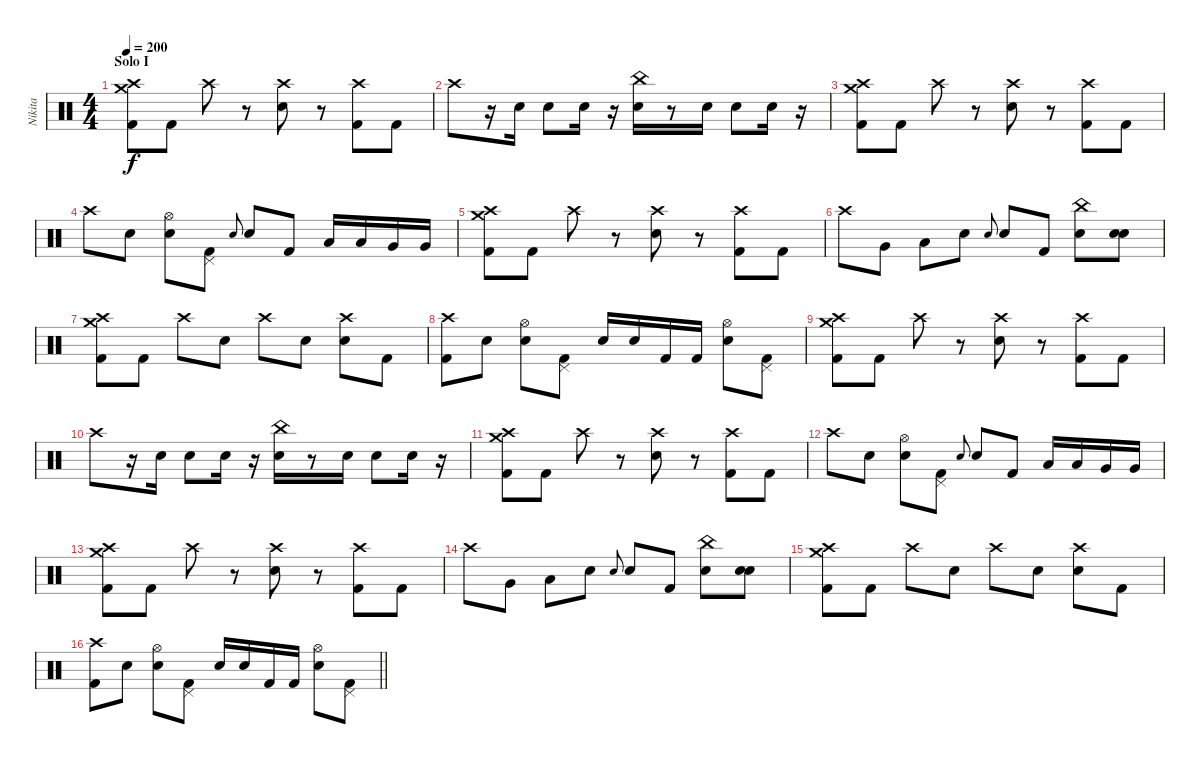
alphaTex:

\track ("Nikita" "Nikita") {instrument percussion}
\staff {score}
\articulation defaults
\ts (4 4)
\section ("" "Solo I")
\tempo 200
\clef neutral
\ks c
("Crash high (hit)" "Crash medium (hit)" "Kick (hit) 2").8{dy f} "Kick (hit) 2".8 "Crash high (hit)".8 r.8 ("Crash high (hit)" "Electric Snare (hit)").8 r.8 ("Crash high (hit)" "Kick (hit) 2").8 "Kick (hit) 2".8 |
"Crash high (hit)".8 r.16 "Electric Snare (hit)".16 "Metronome (bell)".8 "Electric Snare (hit)".16 r.16 ("China (hit)" "Electric Snare (hit)").16 r.8 "Electric Snare (hit)".16 "Metronome (bell)".8 "Electric Snare (hit)".16 r.16 |
("Crash high (hit)" "Crash medium (hit)" "Kick (hit) 2").8 "Kick (hit) 2".8 "Crash high (hit)".8 r.8 ("Crash high (hit)" "Electric Snare (hit)").8 r.8 ("Crash high (hit)" "Kick (hit) 2").8 "Kick (hit) 2".8 |
"Crash high (hit)".8 "Electric Snare (hit)".8 ("Hi-Hat (open)" "Electric Snare (hit)").8 ("Pedal Hi-Hat (hit)" "Kick (hit) 2").8 "Electric Snare (hit)"{x}.8{gr onbeat} "Electric Snare (hit)".8 "Kick (hit) 2".8 "Low Tom (hit)".16 "Low Tom (hit)".16 "Very Low Tom (hit)".16 "Very Low Tom (hit)".16 |
("Crash high (hit)" "Crash medium (hit)" "Kick (hit) 2").8 "Kick (hit) 2".8 "Crash high (hit)".8 r.8 ("Crash high (hit)" "Electric Snare (hit)").8 r.8 ("Crash high (hit)" "Kick (hit) 2").8 "Kick (hit) 2".8 |
"Crash high (hit)".8 "Very Low Tom (hit)".8 "Low Tom (hit)".8 "Electric Snare (hit)".8 "Electric Snare (hit)"{x}.8{gr onbeat} "Electric Snare (hit)".8 "Kick (hit) 2".8 ("China (hit)" "Electric Snare (hit)").8 ("Metronome (bell)" "Electric Snare (hit)").8 |
("Crash high (hit)" "Crash medium (hit)" "Kick (hit) 2").8 "Kick (hit) 2".8 "Crash high (hit)".8 "Electric Snare (hit)".8 "Crash high (hit)".8 "Electric Snare (hit)".8 ("Crash high (hit)" "Electric Snare (hit)").8 "Kick (hit) 2".8 |
("Crash high (hit)" "Kick (hit) 2").8 "Electric Snare (hit)".8 ("Hi-Hat (open)" "Electric Snare (hit)").8 ("Pedal Hi-Hat (hit)" "Kick (hit) 2").8 "Electric Snare (hit)".16 "Electric Snare (hit)".16 "Kick (hit) 2".16 "Kick (hit) 2".16 ("Hi-Hat (open)" "Electric Snare (hit)").8 ("Pedal Hi-Hat (hit)" "Kick (hit) 2").8 |
("Crash high (hit)" "Crash medium (hit)" "Kick (hit) 2").8 "Kick (hit) 2".8 "Crash high (hit)".8 r.8 ("Crash high (hit)" "Electric Snare (hit)").8 r.8 ("Crash high (hit)" "Kick (hit) 2").8 "Kick (hit) 2".8 |
"Crash high (hit)".8 r.16 "Electric Snare (hit)".16 "Metronome (bell)".8 "Electric Snare (hit)".16 r.16 ("China (hit)" "Electric Snare (hit)").16 r.8 "Electric Snare (hit)".16 "Metronome (bell)".8 "Electric Snare (hit)".16 r.16 |
("Crash high (hit)" "Crash medium (hit)" "Kick (hit) 2").8 "Kick (hit) 2".8 "Crash high (hit)".8 r.8 ("Crash high (hit)" "Electric Snare (hit)").8 r.8 ("Crash high (hit)" "Kick (hit) 2").8 "Kick (hit) 2".8 |
"Crash high (hit)".8 "Electric Snare (hit)".8 ("Hi-Hat (open)" "Electric Snare (hit)").8 ("Pedal Hi-Hat (hit)" "Kick (hit) 2").8 "Electric Snare (hit)"{x}.8{gr onbeat} "Electric Snare (hit)".8 "Kick (hit) 2".8 "Low Tom (hit)".16 "Low Tom (hit)".16 "Very Low Tom (hit)".16 "Very Low Tom (hit)".16 |
("Crash high (hit)" "Crash medium (hit)" "Kick (hit) 2").8 "Kick (hit) 2".8 "Crash high (hit)".8 r.8 ("Crash high (hit)" "Electric Snare (hit)").8 r.8 ("Crash high (hit)" "Kick (hit) 2").8 "Kick (hit) 2".8 |
"Crash high (hit)".8 "Very Low Tom (hit)".8 "Low Tom (hit)".8 "Electric Snare (hit)".8 "Electric Snare (hit)"{x}.8{gr onbeat} "Electric Snare (hit)".8 "Kick (hit) 2".8 ("China (hit)" "Electric Snare (hit)").8 ("Metronome (bell)" "Electric Snare (hit)").8 |
("Crash high (hit)" "Crash medium (hit)" "Kick (hit) 2").8 "Kick (hit) 2".8 "Crash high (hit)".8 "Electric Snare (hit)".8 "Crash high (hit)".8 "Electric Snare (hit)".8 ("Crash high (hit)" "Electric Snare (hit)").8 "Kick (hit) 2".8 |
\barLineRight lightlight
("Crash high (hit)" "Kick (hit) 2").8 "Electric Snare (hit)".8 ("Hi-Hat (open)" "Electric Snare (hit)").8 ("Pedal Hi-Hat (hit)" "Kick (hit) 2").8 "Electric Snare (hit)".16 "Electric Snare (hit)".16 "Kick (hit) 2".16 "Kick (hit) 2".16 ("Hi-Hat (open)" "Electric Snare (hit)").8 ("Pedal Hi-Hat (hit)" "Kick (hit) 2").8
